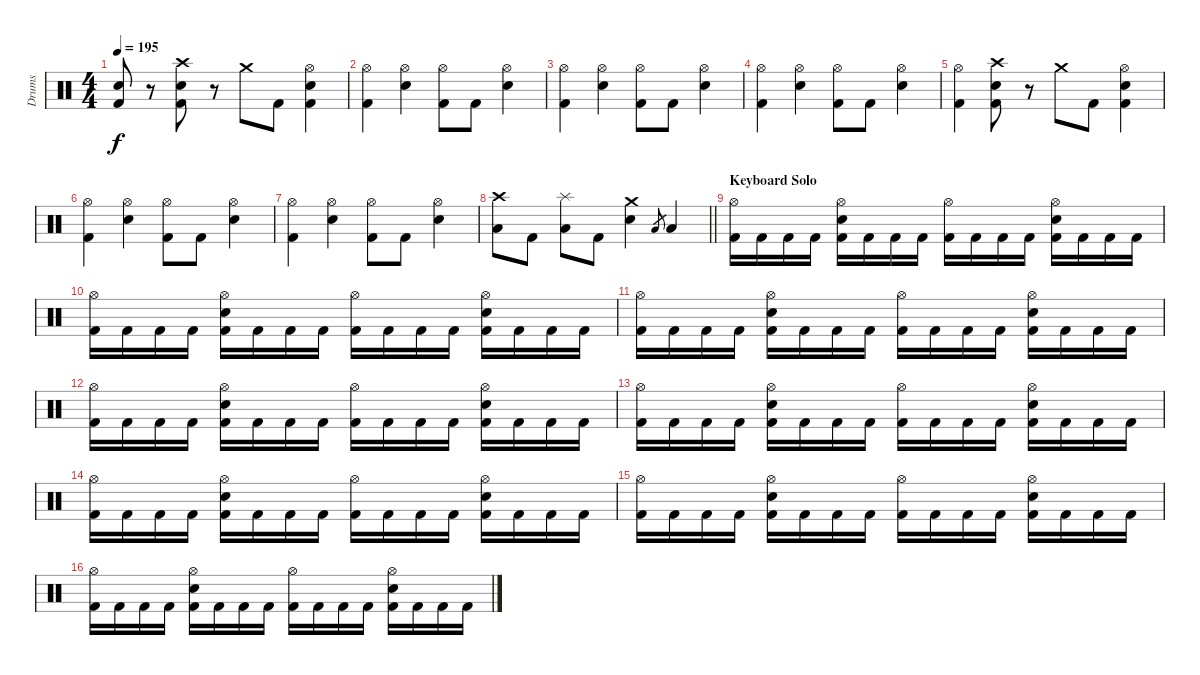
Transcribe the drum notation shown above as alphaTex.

\track ("Drums" "Drums") {instrument percussion}
\staff {score}
\articulation defaults
\ts (4 4)
\tempo 195
\clef neutral
\ks c
("Snare (hit) 2" "Kick (hit) 2").8{dy f} r.8 ("Crash high (hit)" "Snare (hit) 2" "Kick (hit) 2").8 r.8 "Crash medium (hit)".8 "Kick (hit) 2".8 ("Hi-Hat (open)" "Snare (hit) 2" "Kick (hit) 2").4 |
("Hi-Hat (open)" "Kick (hit) 2").4 ("Hi-Hat (open)" "Snare (hit) 2").4 ("Hi-Hat (open)" "Kick (hit) 2").8 "Kick (hit) 2".8 ("Hi-Hat (open)" "Snare (hit) 2").4 |
("Hi-Hat (open)" "Kick (hit) 2").4 ("Hi-Hat (open)" "Snare (hit) 2").4 ("Hi-Hat (open)" "Kick (hit) 2").8 "Kick (hit) 2".8 ("Hi-Hat (open)" "Snare (hit) 2").4 |
("Hi-Hat (open)" "Kick (hit) 2").4 ("Hi-Hat (open)" "Snare (hit) 2").4 ("Hi-Hat (open)" "Kick (hit) 2").8 "Kick (hit) 2".8 ("Hi-Hat (open)" "Snare (hit) 2").4 |
("Hi-Hat (open)" "Kick (hit) 2").4 ("Crash high (hit)" "Snare (hit) 2" "Kick (hit) 2").8 r.8 "Crash medium (hit)".8 "Kick (hit) 2".8 ("Hi-Hat (open)" "Snare (hit) 2" "Kick (hit) 2").4 |
("Hi-Hat (open)" "Kick (hit) 2").4 ("Hi-Hat (open)" "Snare (hit) 2").4 ("Hi-Hat (open)" "Kick (hit) 2").8 "Kick (hit) 2".8 ("Hi-Hat (open)" "Snare (hit) 2").4 |
("Hi-Hat (open)" "Kick (hit) 2").4 ("Hi-Hat (open)" "Snare (hit) 2").4 ("Hi-Hat (open)" "Kick (hit) 2").8 "Kick (hit) 2".8 ("Hi-Hat (open)" "Snare (hit) 2").4 |
\barLineRight lightlight
("Crash high (hit)" "Low Tom (hit)").8 "Kick (hit) 2".8 ("Splash (hit)" "Low Tom (hit)").8 "Kick (hit) 2".8 ("Crash medium (hit)" "Snare (hit) 2").4 "Low Floor Tom (hit)".8{gr} "Low Floor Tom (hit)".4 |
\section ("" "Keyboard Solo")
("Hi-Hat (open)" "Kick (hit) 2").16 "Kick (hit) 2".16 "Kick (hit) 2".16 "Kick (hit) 2".16 ("Hi-Hat (open)" "Snare (hit) 2" "Kick (hit) 2").16 "Kick (hit) 2".16 "Kick (hit) 2".16 "Kick (hit) 2".16 ("Hi-Hat (open)" "Kick (hit) 2").16 "Kick (hit) 2".16 "Kick (hit) 2".16 "Kick (hit) 2".16 ("Hi-Hat (open)" "Snare (hit) 2" "Kick (hit) 2").16 "Kick (hit) 2".16 "Kick (hit) 2".16 "Kick (hit) 2".16 |
("Hi-Hat (open)" "Kick (hit) 2").16 "Kick (hit) 2".16 "Kick (hit) 2".16 "Kick (hit) 2".16 ("Hi-Hat (open)" "Snare (hit) 2" "Kick (hit) 2").16 "Kick (hit) 2".16 "Kick (hit) 2".16 "Kick (hit) 2".16 ("Hi-Hat (open)" "Kick (hit) 2").16 "Kick (hit) 2".16 "Kick (hit) 2".16 "Kick (hit) 2".16 ("Hi-Hat (open)" "Snare (hit) 2" "Kick (hit) 2").16 "Kick (hit) 2".16 "Kick (hit) 2".16 "Kick (hit) 2".16 |
("Hi-Hat (open)" "Kick (hit) 2").16 "Kick (hit) 2".16 "Kick (hit) 2".16 "Kick (hit) 2".16 ("Hi-Hat (open)" "Snare (hit) 2" "Kick (hit) 2").16 "Kick (hit) 2".16 "Kick (hit) 2".16 "Kick (hit) 2".16 ("Hi-Hat (open)" "Kick (hit) 2").16 "Kick (hit) 2".16 "Kick (hit) 2".16 "Kick (hit) 2".16 ("Hi-Hat (open)" "Snare (hit) 2" "Kick (hit) 2").16 "Kick (hit) 2".16 "Kick (hit) 2".16 "Kick (hit) 2".16 |
("Hi-Hat (open)" "Kick (hit) 2").16 "Kick (hit) 2".16 "Kick (hit) 2".16 "Kick (hit) 2".16 ("Hi-Hat (open)" "Snare (hit) 2" "Kick (hit) 2").16 "Kick (hit) 2".16 "Kick (hit) 2".16 "Kick (hit) 2".16 ("Hi-Hat (open)" "Kick (hit) 2").16 "Kick (hit) 2".16 "Kick (hit) 2".16 "Kick (hit) 2".16 ("Hi-Hat (open)" "Snare (hit) 2" "Kick (hit) 2").16 "Kick (hit) 2".16 "Kick (hit) 2".16 "Kick (hit) 2".16 |
("Hi-Hat (open)" "Kick (hit) 2").16 "Kick (hit) 2".16 "Kick (hit) 2".16 "Kick (hit) 2".16 ("Hi-Hat (open)" "Snare (hit) 2" "Kick (hit) 2").16 "Kick (hit) 2".16 "Kick (hit) 2".16 "Kick (hit) 2".16 ("Hi-Hat (open)" "Kick (hit) 2").16 "Kick (hit) 2".16 "Kick (hit) 2".16 "Kick (hit) 2".16 ("Hi-Hat (open)" "Snare (hit) 2" "Kick (hit) 2").16 "Kick (hit) 2".16 "Kick (hit) 2".16 "Kick (hit) 2".16 |
("Hi-Hat (open)" "Kick (hit) 2").16 "Kick (hit) 2".16 "Kick (hit) 2".16 "Kick (hit) 2".16 ("Hi-Hat (open)" "Snare (hit) 2" "Kick (hit) 2").16 "Kick (hit) 2".16 "Kick (hit) 2".16 "Kick (hit) 2".16 ("Hi-Hat (open)" "Kick (hit) 2").16 "Kick (hit) 2".16 "Kick (hit) 2".16 "Kick (hit) 2".16 ("Hi-Hat (open)" "Snare (hit) 2" "Kick (hit) 2").16 "Kick (hit) 2".16 "Kick (hit) 2".16 "Kick (hit) 2".16 |
("Hi-Hat (open)" "Kick (hit) 2").16 "Kick (hit) 2".16 "Kick (hit) 2".16 "Kick (hit) 2".16 ("Hi-Hat (open)" "Snare (hit) 2" "Kick (hit) 2").16 "Kick (hit) 2".16 "Kick (hit) 2".16 "Kick (hit) 2".16 ("Hi-Hat (open)" "Kick (hit) 2").16 "Kick (hit) 2".16 "Kick (hit) 2".16 "Kick (hit) 2".16 ("Hi-Hat (open)" "Snare (hit) 2" "Kick (hit) 2").16 "Kick (hit) 2".16 "Kick (hit) 2".16 "Kick (hit) 2".16 |
("Hi-Hat (open)" "Kick (hit) 2").16 "Kick (hit) 2".16 "Kick (hit) 2".16 "Kick (hit) 2".16 ("Hi-Hat (open)" "Snare (hit) 2" "Kick (hit) 2").16 "Kick (hit) 2".16 "Kick (hit) 2".16 "Kick (hit) 2".16 ("Hi-Hat (open)" "Kick (hit) 2").16 "Kick (hit) 2".16 "Kick (hit) 2".16 "Kick (hit) 2".16 ("Hi-Hat (open)" "Snare (hit) 2" "Kick (hit) 2").16 "Kick (hit) 2".16 "Kick (hit) 2".16 "Kick (hit) 2".16
